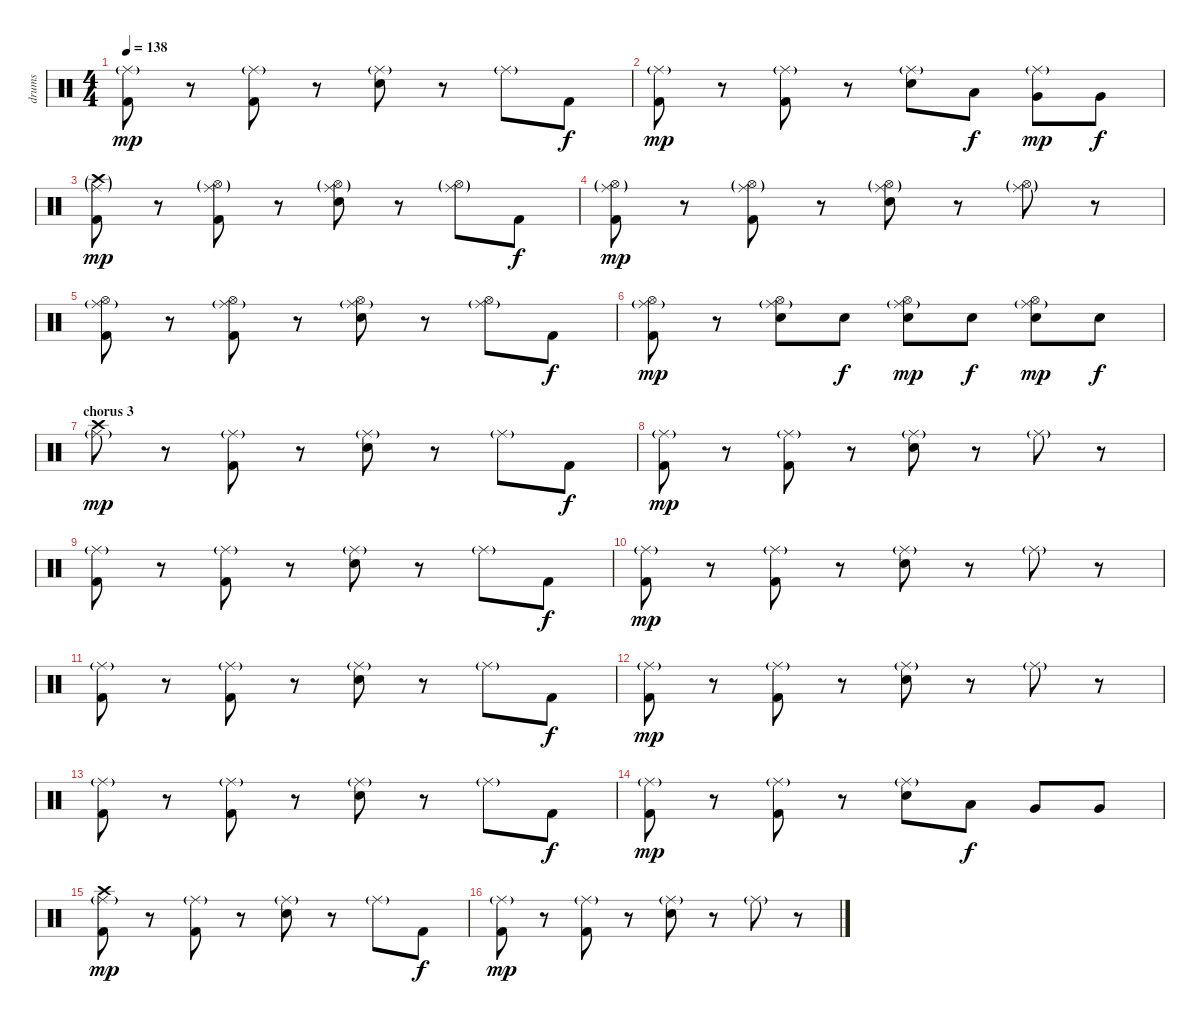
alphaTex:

\track ("drums" "drums") {instrument percussion}
\staff {score}
\articulation defaults
\ts (4 4)
\tempo 138
\clef neutral
\ks c
("Kick (hit) 2" "Ride (middle)"{g}).8{dy mp} r.8 ("Kick (hit) 2" "Ride (middle)"{g}).8 r.8 ("Electric Snare (hit)" "Ride (middle)"{g}).8 r.8 "Ride (middle)"{g}.8 "Kick (hit) 2".8{dy f} |
("Kick (hit) 2" "Ride (middle)"{g}).8{dy mp} r.8 ("Kick (hit) 2" "Ride (middle)"{g}).8 r.8 ("Electric Snare (hit)" "Ride (middle)"{g}).8 "Low Tom (hit)".8{dy f} ("Very Low Tom (hit)" "Ride (middle)"{g}).8{dy mp} "Very Low Tom (hit)".8{dy f} |
("Kick (hit) 2" "Ride (middle)"{g} "Crash high (hit)"{g}).8{dy mp} r.8 ("Kick (hit) 2" "Ride (middle)"{g} "Hi-Hat (open)"{g}).8 r.8 ("Electric Snare (hit)" "Ride (middle)"{g} "Hi-Hat (open)"{g}).8 r.8 ("Ride (middle)"{g} "Hi-Hat (open)"{g}).8 "Kick (hit) 2".8{dy f} |
("Kick (hit) 2" "Ride (middle)"{g} "Hi-Hat (open)"{g}).8{dy mp} r.8 ("Kick (hit) 2" "Ride (middle)"{g} "Hi-Hat (open)"{g}).8 r.8 ("Electric Snare (hit)" "Ride (middle)"{g} "Hi-Hat (open)"{g}).8 r.8 ("Ride (middle)"{g} "Hi-Hat (open)"{g}).8 r.8 |
("Kick (hit) 2" "Ride (middle)"{g} "Hi-Hat (open)").8 r.8 ("Kick (hit) 2" "Ride (middle)"{g} "Hi-Hat (open)").8 r.8 ("Electric Snare (hit)" "Ride (middle)"{g} "Hi-Hat (open)").8 r.8 ("Ride (middle)"{g} "Hi-Hat (open)").8 "Kick (hit) 2".8{dy f} |
("Kick (hit) 2" "Ride (middle)"{g} "Hi-Hat (open)").8{dy mp} r.8 ("Electric Snare (hit)"{tr (40 16)} "Ride (middle)"{g} "Hi-Hat (open)").8 "Electric Snare (hit)"{tr (40 16)}.8{dy f} ("Electric Snare (hit)" "Ride (middle)"{g} "Hi-Hat (open)").8{dy mp} "Electric Snare (hit)"{tr (40 16)}.8{dy f} ("Electric Snare (hit)"{tr (40 16)} "Ride (middle)"{g} "Hi-Hat (open)").8{dy mp} "Electric Snare (hit)".8{dy f} |
\section ("" "chorus 3")
("Ride (middle)"{g} "Crash high (hit)").8{dy mp} r.8 ("Kick (hit) 2" "Ride (middle)"{g}).8 r.8 ("Electric Snare (hit)" "Ride (middle)"{g}).8 r.8 "Ride (middle)"{g}.8 "Kick (hit) 2".8{dy f} |
("Kick (hit) 2" "Ride (middle)"{g}).8{dy mp} r.8 ("Kick (hit) 2" "Ride (middle)"{g}).8 r.8 ("Electric Snare (hit)" "Ride (middle)"{g}).8 r.8 "Ride (middle)"{g}.8 r.8 |
("Kick (hit) 2" "Ride (middle)"{g}).8 r.8 ("Kick (hit) 2" "Ride (middle)"{g}).8 r.8 ("Electric Snare (hit)" "Ride (middle)"{g}).8 r.8 "Ride (middle)"{g}.8 "Kick (hit) 2".8{dy f} |
("Kick (hit) 2" "Ride (middle)"{g}).8{dy mp} r.8 ("Kick (hit) 2" "Ride (middle)"{g}).8 r.8 ("Electric Snare (hit)" "Ride (middle)"{g}).8 r.8 "Ride (middle)"{g}.8 r.8 |
("Kick (hit) 2" "Ride (middle)"{g}).8 r.8 ("Kick (hit) 2" "Ride (middle)"{g}).8 r.8 ("Electric Snare (hit)" "Ride (middle)"{g}).8 r.8 "Ride (middle)"{g}.8 "Kick (hit) 2".8{dy f} |
("Kick (hit) 2" "Ride (middle)"{g}).8{dy mp} r.8 ("Kick (hit) 2" "Ride (middle)"{g}).8 r.8 ("Electric Snare (hit)" "Ride (middle)"{g}).8 r.8 "Ride (middle)"{g}.8 r.8 |
("Kick (hit) 2" "Ride (middle)"{g}).8 r.8 ("Kick (hit) 2" "Ride (middle)"{g}).8 r.8 ("Electric Snare (hit)" "Ride (middle)"{g}).8 r.8 "Ride (middle)"{g}.8 "Kick (hit) 2".8{dy f} |
("Kick (hit) 2" "Ride (middle)"{g}).8{dy mp} r.8 ("Kick (hit) 2" "Ride (middle)"{g}).8 r.8 ("Electric Snare (hit)" "Ride (middle)"{g}).8 "Low Tom (hit)".8{dy f} "Very Low Tom (hit)".8 "Very Low Tom (hit)".8 |
("Kick (hit) 2" "Ride (middle)"{g} "Crash high (hit)").8{dy mp} r.8 ("Kick (hit) 2" "Ride (middle)"{g}).8 r.8 ("Electric Snare (hit)" "Ride (middle)"{g}).8 r.8 "Ride (middle)"{g}.8 "Kick (hit) 2".8{dy f} |
("Kick (hit) 2" "Ride (middle)"{g}).8{dy mp} r.8 ("Kick (hit) 2" "Ride (middle)"{g}).8 r.8 ("Electric Snare (hit)" "Ride (middle)"{g}).8 r.8 "Ride (middle)"{g}.8 r.8
